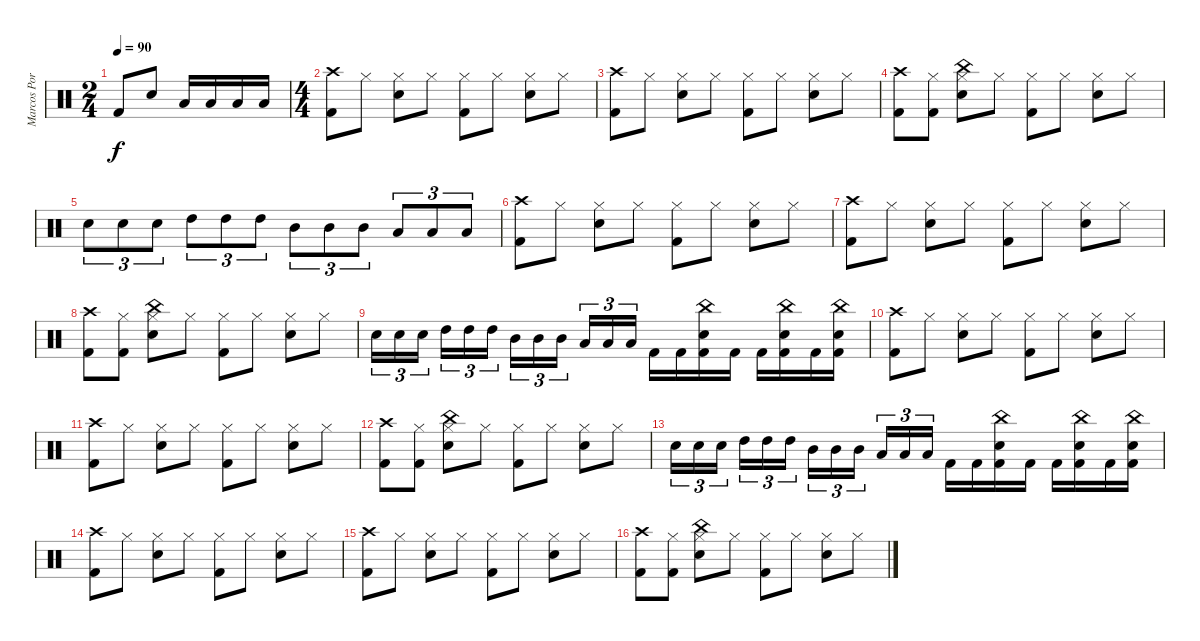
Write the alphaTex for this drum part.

\track ("Marcos Portinol" "Marcos Por") {instrument percussion}
\staff {score}
\articulation defaults
\ts (2 4)
\tempo 90
\clef neutral
\ks c "Kick (hit) 2".8{dy f} "Electric Snare (hit)".8 "Low Tom (hit)".16 "Low Tom (hit)".16 "Low Tom (hit)".16 "Low Tom (hit)".16
|
\ts (4 4)
("Kick (hit) 2" "Crash high (hit)").8 "Hi-Hat (closed)".8 ("Electric Snare (hit)" "Hi-Hat (closed)").8 "Hi-Hat (closed)".8 ("Kick (hit) 2" "Hi-Hat (closed)").8 "Hi-Hat (closed)".8 ("Electric Snare (hit)" "Hi-Hat (closed)").8 "Hi-Hat (closed)".8 |
("Kick (hit) 2" "Crash high (hit)").8 "Hi-Hat (closed)".8 ("Electric Snare (hit)" "Hi-Hat (closed)").8 "Hi-Hat (closed)".8 ("Kick (hit) 2" "Hi-Hat (closed)").8 "Hi-Hat (closed)".8 ("Electric Snare (hit)" "Hi-Hat (closed)").8 "Hi-Hat (closed)".8 |
("Kick (hit) 2" "Crash high (hit)").8 ("Kick (hit) 2" "Hi-Hat (closed)").8 ("Electric Snare (hit)" "Hi-Hat (closed)" "China (hit)").8 "Hi-Hat (closed)".8 ("Kick (hit) 2" "Hi-Hat (closed)").8 "Hi-Hat (closed)".8 ("Electric Snare (hit)" "Hi-Hat (closed)").8 "Hi-Hat (closed)".8 |
"Electric Snare (hit)".8{tu (3 2)} "Electric Snare (hit)".8{tu (3 2)} "Electric Snare (hit)".8{tu (3 2)} "High Tom (hit)".8{tu (3 2)} "High Tom (hit)".8{tu (3 2)} "High Tom (hit)".8{tu (3 2)} "Mid Tom (hit)".8{tu (3 2)} "Mid Tom (hit)".8{tu (3 2)} "Mid Tom (hit)".8{tu (3 2)} "Low Tom (hit)".8{tu (3 2)} "Low Tom (hit)".8{tu (3 2)} "Low Tom (hit)".8{tu (3 2)} |
("Kick (hit) 2" "Crash high (hit)").8 "Hi-Hat (closed)".8 ("Electric Snare (hit)" "Hi-Hat (closed)").8 "Hi-Hat (closed)".8 ("Kick (hit) 2" "Hi-Hat (closed)").8 "Hi-Hat (closed)".8 ("Electric Snare (hit)" "Hi-Hat (closed)").8 "Hi-Hat (closed)".8 |
("Kick (hit) 2" "Crash high (hit)").8 "Hi-Hat (closed)".8 ("Electric Snare (hit)" "Hi-Hat (closed)").8 "Hi-Hat (closed)".8 ("Kick (hit) 2" "Hi-Hat (closed)").8 "Hi-Hat (closed)".8 ("Electric Snare (hit)" "Hi-Hat (closed)").8 "Hi-Hat (closed)".8 |
("Kick (hit) 2" "Crash high (hit)").8 ("Kick (hit) 2" "Hi-Hat (closed)").8 ("Electric Snare (hit)" "Hi-Hat (closed)" "China (hit)").8 "Hi-Hat (closed)".8 ("Kick (hit) 2" "Hi-Hat (closed)").8 "Hi-Hat (closed)".8 ("Electric Snare (hit)" "Hi-Hat (closed)").8 "Hi-Hat (closed)".8 |
"Electric Snare (hit)".16{tu (3 2)} "Electric Snare (hit)".16{tu (3 2)} "Electric Snare (hit)".16{tu (3 2)} "High Tom (hit)".16{tu (3 2)} "High Tom (hit)".16{tu (3 2)} "High Tom (hit)".16{tu (3 2)} "Mid Tom (hit)".16{tu (3 2)} "Mid Tom (hit)".16{tu (3 2)} "Mid Tom (hit)".16{tu (3 2)} "Low Tom (hit)".16{tu (3 2)} "Low Tom (hit)".16{tu (3 2)} "Low Tom (hit)".16{tu (3 2)} "Kick (hit) 2".16 "Kick (hit) 2".16 ("Kick (hit) 2" "Electric Snare (hit)" "China (hit)").16 "Kick (hit) 2".16 "Kick (hit) 2".16 ("Kick (hit) 2" "Electric Snare (hit)" "China (hit)").16 "Kick (hit) 2".16 ("Kick (hit) 2" "Electric Snare (hit)" "China (hit)").16 |
("Kick (hit) 2" "Crash high (hit)").8 "Hi-Hat (closed)".8 ("Electric Snare (hit)" "Hi-Hat (closed)").8 "Hi-Hat (closed)".8 ("Kick (hit) 2" "Hi-Hat (closed)").8 "Hi-Hat (closed)".8 ("Electric Snare (hit)" "Hi-Hat (closed)").8 "Hi-Hat (closed)".8 |
("Kick (hit) 2" "Crash high (hit)").8 "Hi-Hat (closed)".8 ("Electric Snare (hit)" "Hi-Hat (closed)").8 "Hi-Hat (closed)".8 ("Kick (hit) 2" "Hi-Hat (closed)").8 "Hi-Hat (closed)".8 ("Electric Snare (hit)" "Hi-Hat (closed)").8 "Hi-Hat (closed)".8 |
("Kick (hit) 2" "Crash high (hit)").8 ("Kick (hit) 2" "Hi-Hat (closed)").8 ("Electric Snare (hit)" "Hi-Hat (closed)" "China (hit)").8 "Hi-Hat (closed)".8 ("Kick (hit) 2" "Hi-Hat (closed)").8 "Hi-Hat (closed)".8 ("Electric Snare (hit)" "Hi-Hat (closed)").8 "Hi-Hat (closed)".8 |
"Electric Snare (hit)".16{tu (3 2)} "Electric Snare (hit)".16{tu (3 2)} "Electric Snare (hit)".16{tu (3 2)} "High Tom (hit)".16{tu (3 2)} "High Tom (hit)".16{tu (3 2)} "High Tom (hit)".16{tu (3 2)} "Mid Tom (hit)".16{tu (3 2)} "Mid Tom (hit)".16{tu (3 2)} "Mid Tom (hit)".16{tu (3 2)} "Low Tom (hit)".16{tu (3 2)} "Low Tom (hit)".16{tu (3 2)} "Low Tom (hit)".16{tu (3 2)} "Kick (hit) 2".16 "Kick (hit) 2".16 ("Kick (hit) 2" "Electric Snare (hit)" "China (hit)").16 "Kick (hit) 2".16 "Kick (hit) 2".16 ("Kick (hit) 2" "Electric Snare (hit)" "China (hit)").16 "Kick (hit) 2".16 ("Kick (hit) 2" "Electric Snare (hit)" "China (hit)").16 |
("Kick (hit) 2" "Crash high (hit)").8 "Hi-Hat (closed)".8 ("Electric Snare (hit)" "Hi-Hat (closed)").8 "Hi-Hat (closed)".8 ("Kick (hit) 2" "Hi-Hat (closed)").8 "Hi-Hat (closed)".8 ("Electric Snare (hit)" "Hi-Hat (closed)").8 "Hi-Hat (closed)".8 |
("Kick (hit) 2" "Crash high (hit)").8 "Hi-Hat (closed)".8 ("Electric Snare (hit)" "Hi-Hat (closed)").8 "Hi-Hat (closed)".8 ("Kick (hit) 2" "Hi-Hat (closed)").8 "Hi-Hat (closed)".8 ("Electric Snare (hit)" "Hi-Hat (closed)").8 "Hi-Hat (closed)".8 |
("Kick (hit) 2" "Crash high (hit)").8 ("Kick (hit) 2" "Hi-Hat (closed)").8 ("Electric Snare (hit)" "Hi-Hat (closed)" "China (hit)").8 "Hi-Hat (closed)".8 ("Kick (hit) 2" "Hi-Hat (closed)").8 "Hi-Hat (closed)".8 ("Electric Snare (hit)" "Hi-Hat (closed)").8 "Hi-Hat (closed)".8
